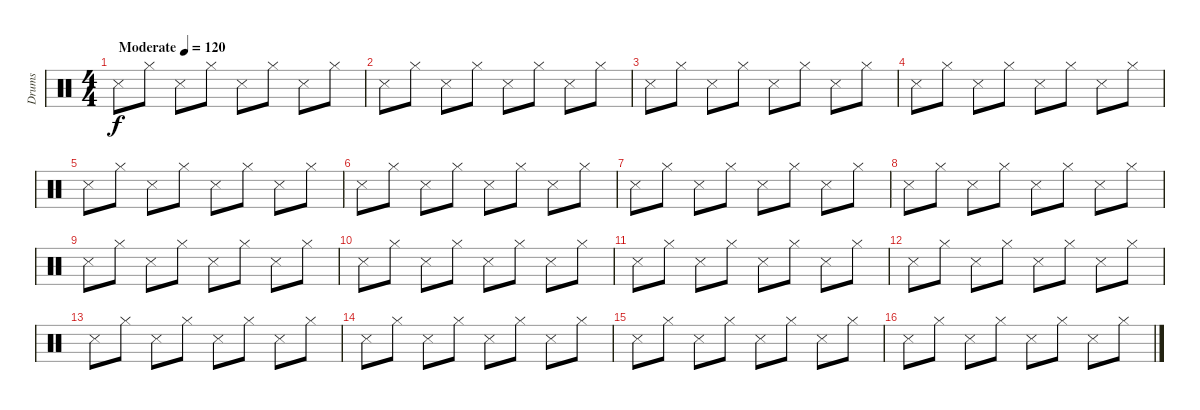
\track ("Drums" "Drums") {instrument percussion}
\staff {score}
\articulation defaults
\ts (4 4)
\tempo (120 "Moderate")
\clef neutral
\ks c "Snare (side stick) 3".8{dy f} "Hi-Hat (closed)".8 "Snare (side stick) 3".8 "Hi-Hat (closed)".8 "Snare (side stick) 3".8 "Hi-Hat (closed)".8 "Snare (side stick) 3".8 "Hi-Hat (closed)".8
|
"Snare (side stick) 3".8 "Hi-Hat (closed)".8 "Snare (side stick) 3".8 "Hi-Hat (closed)".8 "Snare (side stick) 3".8 "Hi-Hat (closed)".8 "Snare (side stick) 3".8 "Hi-Hat (closed)".8 |
"Snare (side stick) 3".8 "Hi-Hat (closed)".8 "Snare (side stick) 3".8 "Hi-Hat (closed)".8 "Snare (side stick) 3".8 "Hi-Hat (closed)".8 "Snare (side stick) 3".8 "Hi-Hat (closed)".8 |
"Snare (side stick) 3".8 "Hi-Hat (closed)".8 "Snare (side stick) 3".8 "Hi-Hat (closed)".8 "Snare (side stick) 3".8 "Hi-Hat (closed)".8 "Snare (side stick) 3".8 "Hi-Hat (closed)".8 |
"Snare (side stick) 3".8 "Hi-Hat (closed)".8 "Snare (side stick) 3".8 "Hi-Hat (closed)".8 "Snare (side stick) 3".8 "Hi-Hat (closed)".8 "Snare (side stick) 3".8 "Hi-Hat (closed)".8 |
"Snare (side stick) 3".8 "Hi-Hat (closed)".8 "Snare (side stick) 3".8 "Hi-Hat (closed)".8 "Snare (side stick) 3".8 "Hi-Hat (closed)".8 "Snare (side stick) 3".8 "Hi-Hat (closed)".8 |
"Snare (side stick) 3".8 "Hi-Hat (closed)".8 "Snare (side stick) 3".8 "Hi-Hat (closed)".8 "Snare (side stick) 3".8 "Hi-Hat (closed)".8 "Snare (side stick) 3".8 "Hi-Hat (closed)".8 |
"Snare (side stick) 3".8 "Hi-Hat (closed)".8 "Snare (side stick) 3".8 "Hi-Hat (closed)".8 "Snare (side stick) 3".8 "Hi-Hat (closed)".8 "Snare (side stick) 3".8 "Hi-Hat (closed)".8 |
"Snare (side stick) 3".8 "Hi-Hat (closed)".8 "Snare (side stick) 3".8 "Hi-Hat (closed)".8 "Snare (side stick) 3".8 "Hi-Hat (closed)".8 "Snare (side stick) 3".8 "Hi-Hat (closed)".8 |
"Snare (side stick) 3".8 "Hi-Hat (closed)".8 "Snare (side stick) 3".8 "Hi-Hat (closed)".8 "Snare (side stick) 3".8 "Hi-Hat (closed)".8 "Snare (side stick) 3".8 "Hi-Hat (closed)".8 |
"Snare (side stick) 3".8 "Hi-Hat (closed)".8 "Snare (side stick) 3".8 "Hi-Hat (closed)".8 "Snare (side stick) 3".8 "Hi-Hat (closed)".8 "Snare (side stick) 3".8 "Hi-Hat (closed)".8 |
"Snare (side stick) 3".8 "Hi-Hat (closed)".8 "Snare (side stick) 3".8 "Hi-Hat (closed)".8 "Snare (side stick) 3".8 "Hi-Hat (closed)".8 "Snare (side stick) 3".8 "Hi-Hat (closed)".8 |
"Snare (side stick) 3".8 "Hi-Hat (closed)".8 "Snare (side stick) 3".8 "Hi-Hat (closed)".8 "Snare (side stick) 3".8 "Hi-Hat (closed)".8 "Snare (side stick) 3".8 "Hi-Hat (closed)".8 |
"Snare (side stick) 3".8 "Hi-Hat (closed)".8 "Snare (side stick) 3".8 "Hi-Hat (closed)".8 "Snare (side stick) 3".8 "Hi-Hat (closed)".8 "Snare (side stick) 3".8 "Hi-Hat (closed)".8 |
"Snare (side stick) 3".8 "Hi-Hat (closed)".8 "Snare (side stick) 3".8 "Hi-Hat (closed)".8 "Snare (side stick) 3".8 "Hi-Hat (closed)".8 "Snare (side stick) 3".8 "Hi-Hat (closed)".8 |
"Snare (side stick) 3".8 "Hi-Hat (closed)".8 "Snare (side stick) 3".8 "Hi-Hat (closed)".8 "Snare (side stick) 3".8 "Hi-Hat (closed)".8 "Snare (side stick) 3".8 "Hi-Hat (closed)".8
